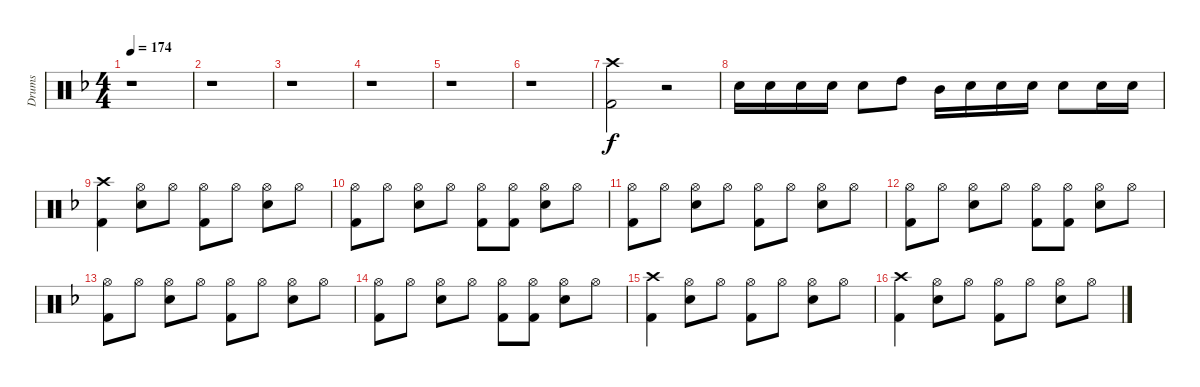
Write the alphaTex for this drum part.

\track ("Drums" "Drums") {instrument percussion}
\staff {score}
\articulation defaults
\ts (4 4)
\tempo 174
\clef neutral
\ks dminor
r.1{dy f} |
r.1 |
r.1 |
r.1 |
r.1 |
r.1 |
("Kick (hit) 2" "Crash high (hit)").2 r.2 |
"Snare (hit) 2".16 "Snare (hit) 2".16 "Snare (hit) 2".16 "Snare (hit) 2".16 "Snare (hit) 2".8 "High Tom (hit)".8 "Mid Tom (hit)".16 "Snare (hit) 2".16 "Snare (hit) 2".16 "Snare (hit) 2".16 "Snare (hit) 2".8 "Snare (hit) 2".16 "Snare (hit) 2".16 |
("Kick (hit) 2" "Crash high (hit)").4 ("Snare (hit) 2" "Hi-Hat (open)").8 "Hi-Hat (open)".8 ("Kick (hit) 2" "Hi-Hat (open)").8 "Hi-Hat (open)".8 ("Snare (hit) 2" "Hi-Hat (open)").8 "Hi-Hat (open)".8 |
("Kick (hit) 2" "Hi-Hat (open)").8 "Hi-Hat (open)".8 ("Snare (hit) 2" "Hi-Hat (open)").8 "Hi-Hat (open)".8 ("Kick (hit) 2" "Hi-Hat (open)").8 ("Kick (hit) 2" "Hi-Hat (open)").8 ("Snare (hit) 2" "Hi-Hat (open)").8 "Hi-Hat (open)".8 |
("Kick (hit) 2" "Hi-Hat (open)").8 "Hi-Hat (open)".8 ("Snare (hit) 2" "Hi-Hat (open)").8 "Hi-Hat (open)".8 ("Kick (hit) 2" "Hi-Hat (open)").8 "Hi-Hat (open)".8 ("Snare (hit) 2" "Hi-Hat (open)").8 "Hi-Hat (open)".8 |
("Kick (hit) 2" "Hi-Hat (open)").8 "Hi-Hat (open)".8 ("Snare (hit) 2" "Hi-Hat (open)").8 "Hi-Hat (open)".8 ("Kick (hit) 2" "Hi-Hat (open)").8 ("Kick (hit) 2" "Hi-Hat (open)").8 ("Snare (hit) 2" "Hi-Hat (open)").8 "Hi-Hat (open)".8 |
("Kick (hit) 2" "Hi-Hat (open)").8 "Hi-Hat (open)".8 ("Snare (hit) 2" "Hi-Hat (open)").8 "Hi-Hat (open)".8 ("Kick (hit) 2" "Hi-Hat (open)").8 "Hi-Hat (open)".8 ("Snare (hit) 2" "Hi-Hat (open)").8 "Hi-Hat (open)".8 |
("Kick (hit) 2" "Hi-Hat (open)").8 "Hi-Hat (open)".8 ("Snare (hit) 2" "Hi-Hat (open)").8 "Hi-Hat (open)".8 ("Kick (hit) 2" "Hi-Hat (open)").8 ("Kick (hit) 2" "Hi-Hat (open)").8 ("Snare (hit) 2" "Hi-Hat (open)").8 "Hi-Hat (open)".8 |
("Kick (hit) 2" "Crash high (hit)").4 ("Snare (hit) 2" "Hi-Hat (open)").8 "Hi-Hat (open)".8 ("Kick (hit) 2" "Hi-Hat (open)").8 "Hi-Hat (open)".8 ("Snare (hit) 2" "Hi-Hat (open)").8 "Hi-Hat (open)".8 |
("Kick (hit) 2" "Crash high (hit)").4 ("Snare (hit) 2" "Hi-Hat (open)").8 "Hi-Hat (open)".8 ("Kick (hit) 2" "Hi-Hat (open)").8 "Hi-Hat (open)".8 ("Snare (hit) 2" "Hi-Hat (open)").8 "Hi-Hat (open)".8
